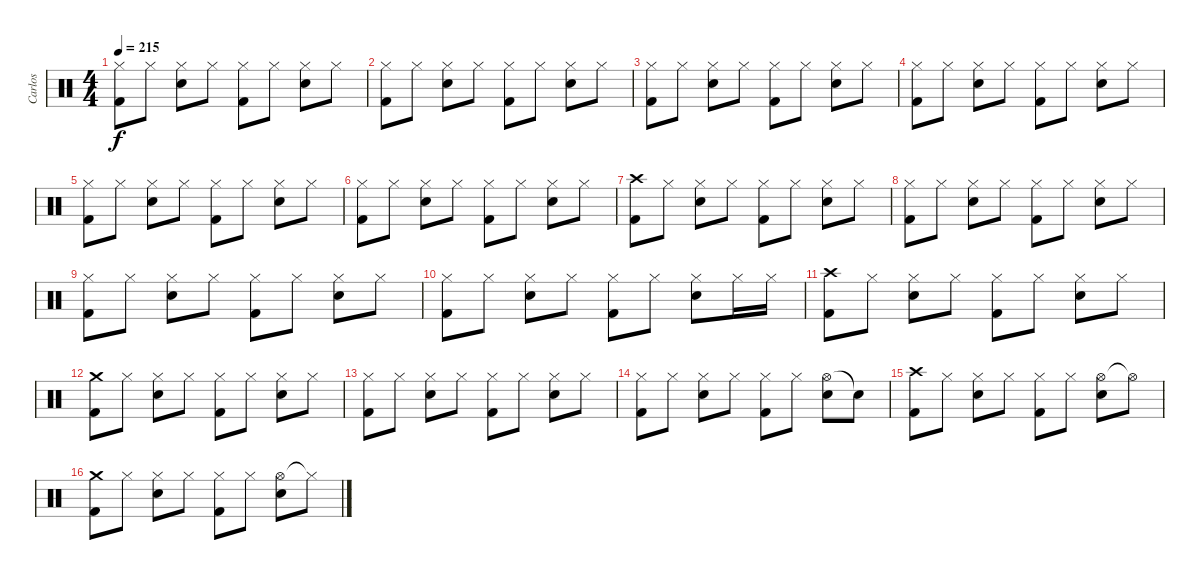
\track ("Carlos" "Carlos") {instrument percussion}
\staff {score}
\articulation defaults
\ts (4 4)
\tempo 215
\clef neutral
\ks c
("Hi-Hat (closed)" "Kick (hit) 2").8{dy f} "Hi-Hat (closed)".8 ("Hi-Hat (closed)" "Snare (hit) 2").8 "Hi-Hat (closed)".8 ("Hi-Hat (closed)" "Kick (hit) 2").8 "Hi-Hat (closed)".8 ("Hi-Hat (closed)" "Snare (hit) 2").8 "Hi-Hat (closed)".8 |
("Hi-Hat (closed)" "Kick (hit) 2").8 "Hi-Hat (closed)".8 ("Hi-Hat (closed)" "Snare (hit) 2").8 "Hi-Hat (closed)".8 ("Hi-Hat (closed)" "Kick (hit) 2").8 "Hi-Hat (closed)".8 ("Hi-Hat (closed)" "Snare (hit) 2").8 "Hi-Hat (closed)".8 |
("Hi-Hat (closed)" "Kick (hit) 2").8 "Hi-Hat (closed)".8 ("Hi-Hat (closed)" "Snare (hit) 2").8 "Hi-Hat (closed)".8 ("Hi-Hat (closed)" "Kick (hit) 2").8 "Hi-Hat (closed)".8 ("Hi-Hat (closed)" "Snare (hit) 2").8 "Hi-Hat (closed)".8 |
("Hi-Hat (closed)" "Kick (hit) 2").8 "Hi-Hat (closed)".8 ("Hi-Hat (closed)" "Snare (hit) 2").8 "Hi-Hat (closed)".8 ("Hi-Hat (closed)" "Kick (hit) 2").8 "Hi-Hat (closed)".8 ("Hi-Hat (closed)" "Snare (hit) 2").8 "Hi-Hat (closed)".8 |
("Hi-Hat (closed)" "Kick (hit) 2").8 "Hi-Hat (closed)".8 ("Hi-Hat (closed)" "Snare (hit) 2").8 "Hi-Hat (closed)".8 ("Hi-Hat (closed)" "Kick (hit) 2").8 "Hi-Hat (closed)".8 ("Hi-Hat (closed)" "Snare (hit) 2").8 "Hi-Hat (closed)".8 |
("Hi-Hat (closed)" "Kick (hit) 2").8 "Hi-Hat (closed)".8 ("Hi-Hat (closed)" "Snare (hit) 2").8 "Hi-Hat (closed)".8 ("Hi-Hat (closed)" "Kick (hit) 2").8 "Hi-Hat (closed)".8 ("Hi-Hat (closed)" "Snare (hit) 2").8 "Hi-Hat (closed)".8 |
("Crash high (hit)" "Kick (hit) 2").8 "Hi-Hat (closed)".8 ("Hi-Hat (closed)" "Snare (hit) 2").8 "Hi-Hat (closed)".8 ("Hi-Hat (closed)" "Kick (hit) 2").8 "Hi-Hat (closed)".8 ("Hi-Hat (closed)" "Snare (hit) 2").8 "Hi-Hat (closed)".8 |
("Hi-Hat (closed)" "Kick (hit) 2").8 "Hi-Hat (closed)".8 ("Hi-Hat (closed)" "Snare (hit) 2").8 "Hi-Hat (closed)".8 ("Hi-Hat (closed)" "Kick (hit) 2").8 "Hi-Hat (closed)".8 ("Hi-Hat (closed)" "Snare (hit) 2").8 "Hi-Hat (closed)".8 |
("Hi-Hat (closed)" "Kick (hit) 2").8 "Hi-Hat (closed)".8 ("Hi-Hat (closed)" "Snare (hit) 2").8 "Hi-Hat (closed)".8 ("Hi-Hat (closed)" "Kick (hit) 2").8 "Hi-Hat (closed)".8 ("Hi-Hat (closed)" "Snare (hit) 2").8 "Hi-Hat (closed)".8 |
("Hi-Hat (closed)" "Kick (hit) 2").8 "Hi-Hat (closed)".8 ("Hi-Hat (closed)" "Snare (hit) 2").8 "Hi-Hat (closed)".8 ("Hi-Hat (closed)" "Kick (hit) 2").8 "Hi-Hat (closed)".8 ("Hi-Hat (closed)" "Snare (hit) 2").8 "Hi-Hat (closed)".16 "Hi-Hat (closed)".16 |
("Crash high (hit)" "Kick (hit) 2").8 "Hi-Hat (closed)".8 ("Hi-Hat (closed)" "Snare (hit) 2").8 "Hi-Hat (closed)".8 ("Hi-Hat (closed)" "Kick (hit) 2").8 "Hi-Hat (closed)".8 ("Hi-Hat (closed)" "Snare (hit) 2").8 "Hi-Hat (closed)".8 |
("Crash medium (hit)" "Kick (hit) 2").8 "Hi-Hat (closed)".8 ("Hi-Hat (closed)" "Snare (hit) 2").8 "Hi-Hat (closed)".8 ("Hi-Hat (closed)" "Kick (hit) 2").8 "Hi-Hat (closed)".8 ("Hi-Hat (closed)" "Snare (hit) 2").8 "Hi-Hat (closed)".8 |
("Hi-Hat (closed)" "Kick (hit) 2").8 "Hi-Hat (closed)".8 ("Hi-Hat (closed)" "Snare (hit) 2").8 "Hi-Hat (closed)".8 ("Hi-Hat (closed)" "Kick (hit) 2").8 "Hi-Hat (closed)".8 ("Hi-Hat (closed)" "Snare (hit) 2").8 "Hi-Hat (closed)".8 |
("Hi-Hat (closed)" "Kick (hit) 2").8 "Hi-Hat (closed)".8 ("Hi-Hat (closed)" "Snare (hit) 2").8 "Hi-Hat (closed)".8 ("Hi-Hat (closed)" "Kick (hit) 2").8 "Hi-Hat (closed)".8 ("Hi-Hat (open)" "Snare (hit) 2").8 "Snare (hit)"{t}.8 |
("Crash high (hit)" "Kick (hit) 2").8 "Hi-Hat (closed)".8 ("Hi-Hat (closed)" "Snare (hit) 2").8 "Hi-Hat (closed)".8 ("Hi-Hat (closed)" "Kick (hit) 2").8 "Hi-Hat (closed)".8 ("Hi-Hat (open)" "Snare (hit) 2").8 "Hi-Hat (open)"{t}.8 |
("Crash medium (hit)" "Kick (hit) 2").8 "Hi-Hat (closed)".8 ("Hi-Hat (closed)" "Snare (hit) 2").8 "Hi-Hat (closed)".8 ("Hi-Hat (closed)" "Kick (hit) 2").8 "Hi-Hat (closed)".8 ("Hi-Hat (open)" "Snare (hit) 2").8 "Hi-Hat (closed)"{t}.8
